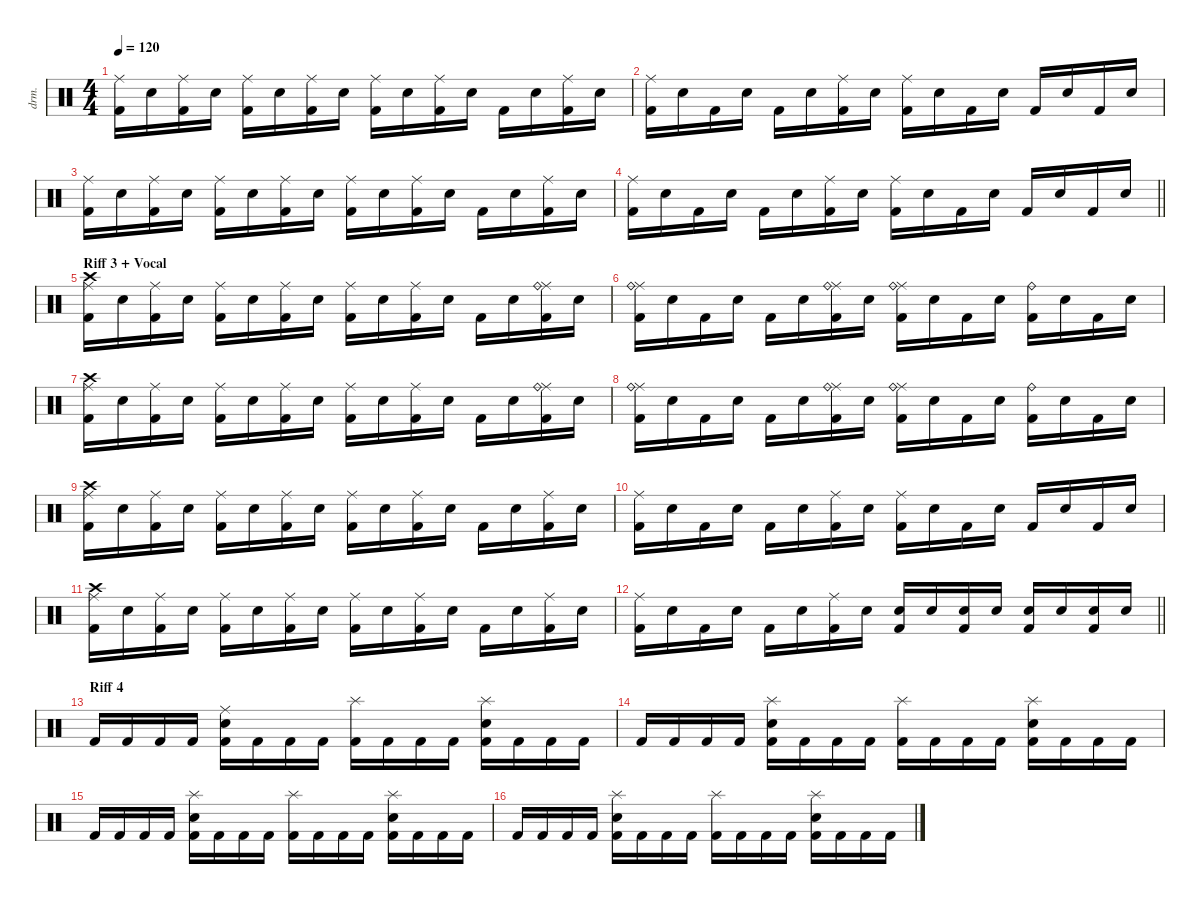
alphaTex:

\defaultSystemsLayout 4
\hideDynamics
\bracketExtendMode nobrackets
\otherSystemsTrackNameOrientation horizontal
\track ("Drums" "drm.") {instrument percussion}
\staff {score}
\articulation defaults
\ts (4 4)
\tempo 120
\clef neutral
\ks c
("Ride (middle)" "Kick (hit) 2").16{dy f} "Snare (hit) 2".16 ("Ride (middle)" "Kick (hit) 2").16 "Snare (hit) 2".16 ("Ride (middle)" "Kick (hit) 2").16 "Snare (hit) 2".16 ("Ride (middle)" "Kick (hit) 2").16 "Snare (hit) 2".16 ("Ride (middle)" "Kick (hit) 2").16 "Snare (hit) 2".16 ("Ride (middle)" "Kick (hit) 2").16 "Snare (hit) 2".16 "Kick (hit) 2".16 "Snare (hit) 2".16 ("Ride (middle)" "Kick (hit) 2").16 "Snare (hit) 2".16 |
("Ride (middle)" "Kick (hit) 2").16 "Snare (hit) 2".16 "Kick (hit) 2".16 "Snare (hit) 2".16 "Kick (hit) 2".16 "Snare (hit) 2".16 ("Ride (middle)" "Kick (hit) 2").16 "Snare (hit) 2".16 ("Ride (middle)" "Kick (hit) 2").16 "Snare (hit) 2".16 "Kick (hit) 2".16 "Snare (hit) 2".16 "Kick (hit) 2".16 "Snare (hit) 2".16 "Kick (hit) 2".16 "Snare (hit) 2".16 |
("Ride (middle)" "Kick (hit) 2").16 "Snare (hit) 2".16 ("Ride (middle)" "Kick (hit) 2").16 "Snare (hit) 2".16 ("Ride (middle)" "Kick (hit) 2").16 "Snare (hit) 2".16 ("Ride (middle)" "Kick (hit) 2").16 "Snare (hit) 2".16 ("Ride (middle)" "Kick (hit) 2").16 "Snare (hit) 2".16 ("Ride (middle)" "Kick (hit) 2").16 "Snare (hit) 2".16 "Kick (hit) 2".16 "Snare (hit) 2".16 ("Ride (middle)" "Kick (hit) 2").16 "Snare (hit) 2".16 |
\barLineRight lightlight
("Ride (middle)" "Kick (hit) 2").16 "Snare (hit) 2".16 "Kick (hit) 2".16 "Snare (hit) 2".16 "Kick (hit) 2".16 "Snare (hit) 2".16 ("Ride (middle)" "Kick (hit) 2").16 "Snare (hit) 2".16 ("Ride (middle)" "Kick (hit) 2").16 "Snare (hit) 2".16 "Kick (hit) 2".16 "Snare (hit) 2".16 "Kick (hit) 2".16 "Snare (hit) 2".16 "Kick (hit) 2".16 "Snare (hit) 2".16 |
\section ("" "Riff 3 + Vocal")
("Ride (middle)" "Kick (hit) 2" "Crash high (hit)").16 "Snare (hit) 2".16 ("Ride (middle)" "Kick (hit) 2").16 "Snare (hit) 2".16 ("Ride (middle)" "Kick (hit) 2").16 "Snare (hit) 2".16 ("Ride (middle)" "Kick (hit) 2").16 "Snare (hit) 2".16 ("Ride (middle)" "Kick (hit) 2").16 "Snare (hit) 2".16 ("Ride (middle)" "Kick (hit) 2").16 "Snare (hit) 2".16 "Kick (hit) 2".16 "Snare (hit) 2".16 ("Ride (middle)" "Kick (hit) 2" "Ride (bell)").16 "Snare (hit) 2".16 |
("Ride (middle)" "Kick (hit) 2" "Ride (bell)").16 "Snare (hit) 2".16 "Kick (hit) 2".16 "Snare (hit) 2".16 "Kick (hit) 2".16 "Snare (hit) 2".16 ("Ride (middle)" "Kick (hit) 2" "Ride (bell)").16 "Snare (hit) 2".16 ("Ride (middle)" "Kick (hit) 2" "Ride (bell)").16 "Snare (hit) 2".16 "Kick (hit) 2".16 "Snare (hit) 2".16 ("Kick (hit) 2" "Ride (bell)").16 "Snare (hit) 2".16 "Kick (hit) 2".16 "Snare (hit) 2".16 |
("Ride (middle)" "Kick (hit) 2" "Crash high (hit)").16 "Snare (hit) 2".16 ("Ride (middle)" "Kick (hit) 2").16 "Snare (hit) 2".16 ("Ride (middle)" "Kick (hit) 2").16 "Snare (hit) 2".16 ("Ride (middle)" "Kick (hit) 2").16 "Snare (hit) 2".16 ("Ride (middle)" "Kick (hit) 2").16 "Snare (hit) 2".16 ("Ride (middle)" "Kick (hit) 2").16 "Snare (hit) 2".16 "Kick (hit) 2".16 "Snare (hit) 2".16 ("Ride (middle)" "Kick (hit) 2" "Ride (bell)").16 "Snare (hit) 2".16 |
("Ride (middle)" "Kick (hit) 2" "Ride (bell)").16 "Snare (hit) 2".16 "Kick (hit) 2".16 "Snare (hit) 2".16 "Kick (hit) 2".16 "Snare (hit) 2".16 ("Ride (middle)" "Kick (hit) 2" "Ride (bell)").16 "Snare (hit) 2".16 ("Ride (middle)" "Kick (hit) 2" "Ride (bell)").16 "Snare (hit) 2".16 "Kick (hit) 2".16 "Snare (hit) 2".16 ("Kick (hit) 2" "Ride (bell)").16 "Snare (hit) 2".16 "Kick (hit) 2".16 "Snare (hit) 2".16 |
("Ride (middle)" "Kick (hit) 2" "Crash high (hit)").16 "Snare (hit) 2".16 ("Ride (middle)" "Kick (hit) 2").16 "Snare (hit) 2".16 ("Ride (middle)" "Kick (hit) 2").16 "Snare (hit) 2".16 ("Ride (middle)" "Kick (hit) 2").16 "Snare (hit) 2".16 ("Ride (middle)" "Kick (hit) 2").16 "Snare (hit) 2".16 ("Ride (middle)" "Kick (hit) 2").16 "Snare (hit) 2".16 "Kick (hit) 2".16 "Snare (hit) 2".16 ("Ride (middle)" "Kick (hit) 2").16 "Snare (hit) 2".16 |
("Ride (middle)" "Kick (hit) 2").16 "Snare (hit) 2".16 "Kick (hit) 2".16 "Snare (hit) 2".16 "Kick (hit) 2".16 "Snare (hit) 2".16 ("Ride (middle)" "Kick (hit) 2").16 "Snare (hit) 2".16 ("Ride (middle)" "Kick (hit) 2").16 "Snare (hit) 2".16 "Kick (hit) 2".16 "Snare (hit) 2".16 "Kick (hit) 2".16 "Snare (hit) 2".16 "Kick (hit) 2".16 "Snare (hit) 2".16 |
("Ride (middle)" "Kick (hit) 2" "Crash high (hit)").16 "Snare (hit) 2".16 ("Ride (middle)" "Kick (hit) 2").16 "Snare (hit) 2".16 ("Ride (middle)" "Kick (hit) 2").16 "Snare (hit) 2".16 ("Ride (middle)" "Kick (hit) 2").16 "Snare (hit) 2".16 ("Ride (middle)" "Kick (hit) 2").16 "Snare (hit) 2".16 ("Ride (middle)" "Kick (hit) 2").16 "Snare (hit) 2".16 "Kick (hit) 2".16 "Snare (hit) 2".16 ("Ride (middle)" "Kick (hit) 2").16 "Snare (hit) 2".16 |
\barLineRight lightlight
("Ride (middle)" "Kick (hit) 2").16 "Snare (hit) 2".16 "Kick (hit) 2".16 "Snare (hit) 2".16 "Kick (hit) 2".16 "Snare (hit) 2".16 ("Ride (middle)" "Kick (hit) 2").16 "Snare (hit) 2".16 ("Snare (hit) 2" "Kick (hit) 2").16 "Snare (hit) 2".16 ("Snare (hit) 2" "Kick (hit) 2").16 "Snare (hit) 2".16 ("Snare (hit) 2" "Kick (hit) 2").16 "Snare (hit) 2".16 ("Snare (hit) 2" "Kick (hit) 2").16 "Snare (hit) 2".16 |
\section ("" "Riff 4")
"Kick (hit) 2".16 "Kick (hit) 2".16 "Kick (hit) 2".16 "Kick (hit) 2".16 ("Ride (middle)" "Snare (hit) 2" "Kick (hit) 2").16 "Kick (hit) 2".16 "Kick (hit) 2".16 "Kick (hit) 2".16 ("Splash (hit)" "Kick (hit) 2").16 "Kick (hit) 2".16 "Kick (hit) 2".16 "Kick (hit) 2".16 ("Splash (hit)" "Snare (hit) 2" "Kick (hit) 2").16 "Kick (hit) 2".16 "Kick (hit) 2".16 "Kick (hit) 2".16 |
"Kick (hit) 2".16 "Kick (hit) 2".16 "Kick (hit) 2".16 "Kick (hit) 2".16 ("Splash (hit)" "Snare (hit) 2" "Kick (hit) 2").16 "Kick (hit) 2".16 "Kick (hit) 2".16 "Kick (hit) 2".16 ("Splash (hit)" "Kick (hit) 2").16 "Kick (hit) 2".16 "Kick (hit) 2".16 "Kick (hit) 2".16 ("Splash (hit)" "Snare (hit) 2" "Kick (hit) 2").16 "Kick (hit) 2".16 "Kick (hit) 2".16 "Kick (hit) 2".16 |
"Kick (hit) 2".16 "Kick (hit) 2".16 "Kick (hit) 2".16 "Kick (hit) 2".16 ("Splash (hit)" "Snare (hit) 2" "Kick (hit) 2").16 "Kick (hit) 2".16 "Kick (hit) 2".16 "Kick (hit) 2".16 ("Splash (hit)" "Kick (hit) 2").16 "Kick (hit) 2".16 "Kick (hit) 2".16 "Kick (hit) 2".16 ("Splash (hit)" "Snare (hit) 2" "Kick (hit) 2").16 "Kick (hit) 2".16 "Kick (hit) 2".16 "Kick (hit) 2".16 |
"Kick (hit) 2".16 "Kick (hit) 2".16 "Kick (hit) 2".16 "Kick (hit) 2".16 ("Splash (hit)" "Snare (hit) 2" "Kick (hit) 2").16 "Kick (hit) 2".16 "Kick (hit) 2".16 "Kick (hit) 2".16 ("Splash (hit)" "Kick (hit) 2").16 "Kick (hit) 2".16 "Kick (hit) 2".16 "Kick (hit) 2".16 ("Splash (hit)" "Snare (hit) 2" "Kick (hit) 2").16 "Kick (hit) 2".16 "Kick (hit) 2".16 "Kick (hit) 2".16
